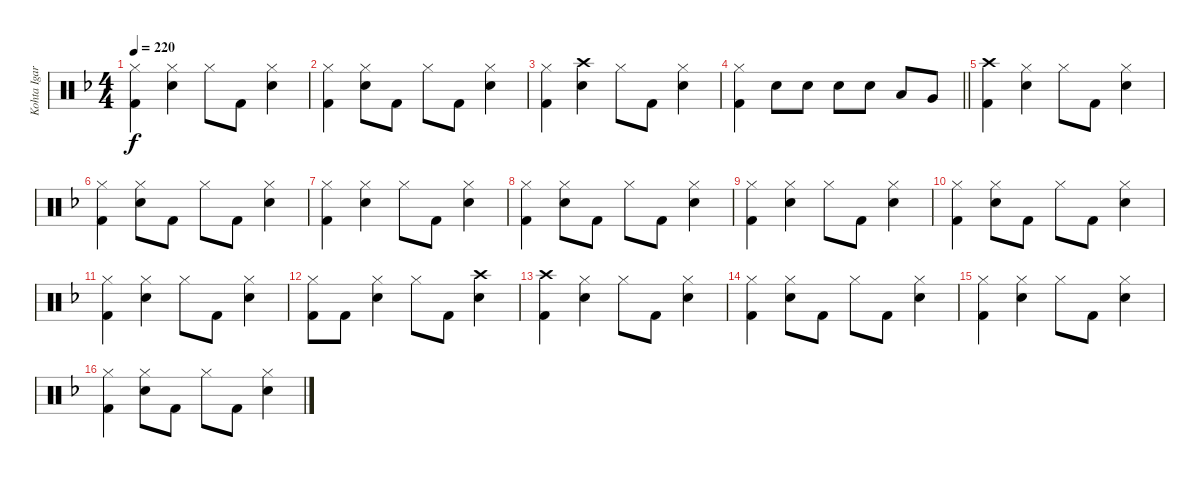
\track ("Kohta Igarashi" "Kohta Igar") {instrument percussion}
\staff {score}
\articulation defaults
\ts (4 4)
\tempo 220
\clef neutral
\ks f
("Hi-Hat (closed)" "Kick (hit) 2").4{dy f} ("Hi-Hat (closed)" "Electric Snare (hit)").4 "Hi-Hat (closed)".8 "Kick (hit) 2".8 ("Hi-Hat (closed)" "Electric Snare (hit)").4 |
("Hi-Hat (closed)" "Kick (hit) 2").4 ("Hi-Hat (closed)" "Electric Snare (hit)").8 "Kick (hit) 2".8 "Hi-Hat (closed)".8 "Kick (hit) 2".8 ("Hi-Hat (closed)" "Electric Snare (hit)").4 |
("Hi-Hat (closed)" "Kick (hit) 2").4 ("Crash high (hit)" "Electric Snare (hit)").4 "Hi-Hat (closed)".8 "Kick (hit) 2".8 ("Hi-Hat (closed)" "Electric Snare (hit)").4 |
\barLineRight lightlight
("Hi-Hat (closed)" "Kick (hit) 2").4 "Electric Snare (hit)".8 "Electric Snare (hit)".8 "Electric Snare (hit)".8 "Electric Snare (hit)".8 "Low Tom (hit)".8 "Very Low Tom (hit)".8 |
("Crash high (hit)" "Kick (hit) 2").4 ("Hi-Hat (closed)" "Electric Snare (hit)").4 "Hi-Hat (closed)".8 "Kick (hit) 2".8 ("Hi-Hat (closed)" "Electric Snare (hit)").4 |
("Hi-Hat (closed)" "Kick (hit) 2").4 ("Hi-Hat (closed)" "Electric Snare (hit)").8 "Kick (hit) 2".8 "Hi-Hat (closed)".8 "Kick (hit) 2".8 ("Hi-Hat (closed)" "Electric Snare (hit)").4 |
("Hi-Hat (closed)" "Kick (hit) 2").4 ("Hi-Hat (closed)" "Electric Snare (hit)").4 "Hi-Hat (closed)".8 "Kick (hit) 2".8 ("Hi-Hat (closed)" "Electric Snare (hit)").4 |
("Hi-Hat (closed)" "Kick (hit) 2").4 ("Hi-Hat (closed)" "Electric Snare (hit)").8 "Kick (hit) 2".8 "Hi-Hat (closed)".8 "Kick (hit) 2".8 ("Hi-Hat (closed)" "Electric Snare (hit)").4 |
("Hi-Hat (closed)" "Kick (hit) 2").4 ("Hi-Hat (closed)" "Electric Snare (hit)").4 "Hi-Hat (closed)".8 "Kick (hit) 2".8 ("Hi-Hat (closed)" "Electric Snare (hit)").4 |
("Hi-Hat (closed)" "Kick (hit) 2").4 ("Hi-Hat (closed)" "Electric Snare (hit)").8 "Kick (hit) 2".8 "Hi-Hat (closed)".8 "Kick (hit) 2".8 ("Hi-Hat (closed)" "Electric Snare (hit)").4 |
("Hi-Hat (closed)" "Kick (hit) 2").4 ("Hi-Hat (closed)" "Electric Snare (hit)").4 "Hi-Hat (closed)".8 "Kick (hit) 2".8 ("Hi-Hat (closed)" "Electric Snare (hit)").4 |
("Hi-Hat (closed)" "Kick (hit) 2").8 "Kick (hit) 2".8 ("Hi-Hat (closed)" "Electric Snare (hit)").4 "Hi-Hat (closed)".8 "Kick (hit) 2".8 ("Crash high (hit)" "Electric Snare (hit)").4 |
("Crash high (hit)" "Kick (hit) 2").4 ("Hi-Hat (closed)" "Electric Snare (hit)").4 "Hi-Hat (closed)".8 "Kick (hit) 2".8 ("Hi-Hat (closed)" "Electric Snare (hit)").4 |
("Hi-Hat (closed)" "Kick (hit) 2").4 ("Hi-Hat (closed)" "Electric Snare (hit)").8 "Kick (hit) 2".8 "Hi-Hat (closed)".8 "Kick (hit) 2".8 ("Hi-Hat (closed)" "Electric Snare (hit)").4 |
("Hi-Hat (closed)" "Kick (hit) 2").4 ("Hi-Hat (closed)" "Electric Snare (hit)").4 "Hi-Hat (closed)".8 "Kick (hit) 2".8 ("Hi-Hat (closed)" "Electric Snare (hit)").4 |
("Hi-Hat (closed)" "Kick (hit) 2").4 ("Hi-Hat (closed)" "Electric Snare (hit)").8 "Kick (hit) 2".8 "Hi-Hat (closed)".8 "Kick (hit) 2".8 ("Hi-Hat (closed)" "Electric Snare (hit)").4
